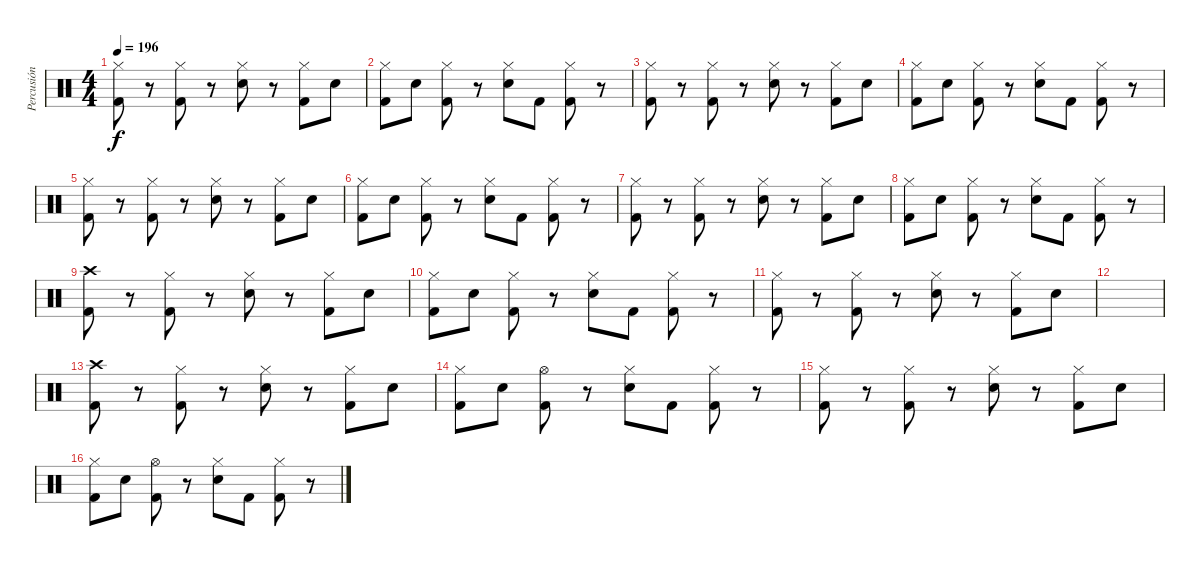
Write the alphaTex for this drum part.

\track ("Percusión" "Percusión") {instrument percussion}
\staff {score}
\articulation defaults
\ts (4 4)
\tempo 196
\clef neutral
\ks c
("Hi-Hat (closed)" "Kick (hit) 2").8{dy f} r.8 ("Hi-Hat (closed)" "Kick (hit) 2").8 r.8 ("Hi-Hat (closed)" "Snare (hit) 2").8 r.8 ("Hi-Hat (closed)" "Kick (hit) 2").8 "Snare (hit) 2".8 |
("Hi-Hat (closed)" "Kick (hit) 2").8 "Snare (hit) 2".8 ("Hi-Hat (closed)" "Kick (hit) 2").8 r.8 ("Hi-Hat (closed)" "Snare (hit) 2").8 "Kick (hit) 2".8 ("Hi-Hat (closed)" "Kick (hit) 2").8 r.8 |
("Hi-Hat (closed)" "Kick (hit) 2").8 r.8 ("Hi-Hat (closed)" "Kick (hit) 2").8 r.8 ("Hi-Hat (closed)" "Snare (hit) 2").8 r.8 ("Hi-Hat (closed)" "Kick (hit) 2").8 "Snare (hit) 2".8 |
("Hi-Hat (closed)" "Kick (hit) 2").8 "Snare (hit) 2".8 ("Hi-Hat (closed)" "Kick (hit) 2").8 r.8 ("Hi-Hat (closed)" "Snare (hit) 2").8 "Kick (hit) 2".8 ("Hi-Hat (closed)" "Kick (hit) 2").8 r.8 |
("Hi-Hat (closed)" "Kick (hit) 2").8 r.8 ("Hi-Hat (closed)" "Kick (hit) 2").8 r.8 ("Hi-Hat (closed)" "Snare (hit) 2").8 r.8 ("Hi-Hat (closed)" "Kick (hit) 2").8 "Snare (hit) 2".8 |
("Hi-Hat (closed)" "Kick (hit) 2").8 "Snare (hit) 2".8 ("Hi-Hat (closed)" "Kick (hit) 2").8 r.8 ("Hi-Hat (closed)" "Snare (hit) 2").8 "Kick (hit) 2".8 ("Hi-Hat (closed)" "Kick (hit) 2").8 r.8 |
("Hi-Hat (closed)" "Kick (hit) 2").8 r.8 ("Hi-Hat (closed)" "Kick (hit) 2").8 r.8 ("Hi-Hat (closed)" "Snare (hit) 2").8 r.8 ("Hi-Hat (closed)" "Kick (hit) 2").8 "Snare (hit) 2".8 |
("Hi-Hat (closed)" "Kick (hit) 2").8 "Snare (hit) 2".8 ("Hi-Hat (closed)" "Kick (hit) 2").8 r.8 ("Hi-Hat (closed)" "Snare (hit) 2").8 "Kick (hit) 2".8 ("Hi-Hat (closed)" "Kick (hit) 2").8 r.8 |
("Crash high (hit)" "Kick (hit) 2").8 r.8 ("Hi-Hat (closed)" "Kick (hit) 2").8 r.8 ("Hi-Hat (closed)" "Snare (hit) 2").8 r.8 ("Hi-Hat (closed)" "Kick (hit) 2").8 "Snare (hit) 2".8 |
("Hi-Hat (closed)" "Kick (hit) 2").8 "Snare (hit) 2".8 ("Hi-Hat (closed)" "Kick (hit) 2").8 r.8 ("Hi-Hat (closed)" "Snare (hit) 2").8 "Kick (hit) 2".8 ("Hi-Hat (closed)" "Kick (hit) 2").8 r.8 |
("Hi-Hat (closed)" "Kick (hit) 2").8 r.8 ("Hi-Hat (closed)" "Kick (hit) 2").8 r.8 ("Hi-Hat (closed)" "Snare (hit) 2").8 r.8 ("Hi-Hat (closed)" "Kick (hit) 2").8 "Snare (hit) 2".8 |
|
("Crash high (hit)" "Kick (hit) 2").8 r.8 ("Hi-Hat (closed)" "Kick (hit) 2").8 r.8 ("Hi-Hat (closed)" "Snare (hit) 2").8 r.8 ("Hi-Hat (closed)" "Kick (hit) 2").8 "Snare (hit) 2".8 |
("Hi-Hat (closed)" "Kick (hit) 2").8 "Snare (hit) 2".8 ("Hi-Hat (open)" "Kick (hit) 2").8 r.8 ("Hi-Hat (closed)" "Snare (hit) 2").8 "Kick (hit) 2".8 ("Hi-Hat (closed)" "Kick (hit) 2").8 r.8 |
("Hi-Hat (closed)" "Kick (hit) 2").8 r.8 ("Hi-Hat (closed)" "Kick (hit) 2").8 r.8 ("Hi-Hat (closed)" "Snare (hit) 2").8 r.8 ("Hi-Hat (closed)" "Kick (hit) 2").8 "Snare (hit) 2".8 |
("Hi-Hat (closed)" "Kick (hit) 2").8 "Snare (hit) 2".8 ("Hi-Hat (open)" "Kick (hit) 2").8 r.8 ("Hi-Hat (closed)" "Snare (hit) 2").8 "Kick (hit) 2".8 ("Hi-Hat (closed)" "Kick (hit) 2").8 r.8
